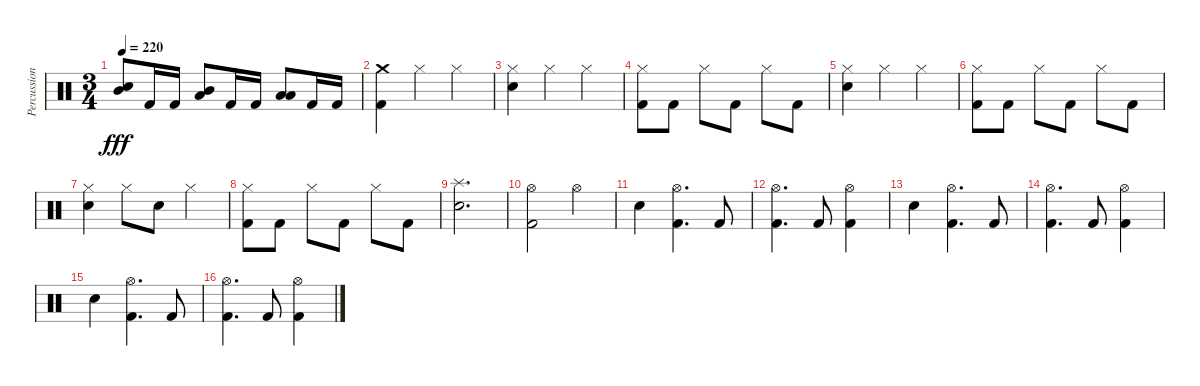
\track ("Percussions" "Percussion") {instrument percussion}
\staff {score}
\articulation defaults
\ts (3 4)
\tempo 220
\clef neutral
\ks c
("Mid Tom (hit)" "Electric Snare (hit)").8{dy fff} "Kick (hit) 2".16 "Kick (hit) 2".16 ("Low Tom (hit)" "Mid Tom (hit)").8 "Kick (hit) 2".16 "Kick (hit) 2".16 ("Low Floor Tom (hit)" "Low Tom (hit)").8 "Kick (hit) 2".16 "Kick (hit) 2".16 |
("Crash medium (hit)" "Kick (hit) 2").4 "Hi-Hat (closed)".4 "Hi-Hat (closed)".4 |
("Hi-Hat (closed)" "Electric Snare (hit)").4 "Hi-Hat (closed)".4 "Hi-Hat (closed)".4 |
("Hi-Hat (closed)" "Kick (hit) 2").8 "Kick (hit) 2".8 "Hi-Hat (closed)".8 "Kick (hit) 2".8 "Hi-Hat (closed)".8 "Kick (hit) 2".8 |
("Hi-Hat (closed)" "Electric Snare (hit)").4 "Hi-Hat (closed)".4 "Hi-Hat (closed)".4 |
("Hi-Hat (closed)" "Kick (hit) 2").8 "Kick (hit) 2".8 "Hi-Hat (closed)".8 "Kick (hit) 2".8 "Hi-Hat (closed)".8 "Kick (hit) 2".8 |
("Hi-Hat (closed)" "Electric Snare (hit)").4 "Hi-Hat (closed)".8 "Electric Snare (hit)".8 "Hi-Hat (closed)".4 |
("Hi-Hat (closed)" "Kick (hit) 2").8 "Kick (hit) 2".8 "Hi-Hat (closed)".8 "Kick (hit) 2".8 "Hi-Hat (closed)".8 "Kick (hit) 2".8 |
("Splash (hit)" "Electric Snare (hit)").2{d} |
("Hi-Hat (open)" "Kick (hit) 2").2 "Hi-Hat (open)".4 |
"Electric Snare (hit)".4 ("Hi-Hat (open)" "Kick (hit) 2").4{d} "Kick (hit) 2".8 |
("Hi-Hat (open)" "Kick (hit) 2").4{d} "Kick (hit) 2".8 ("Hi-Hat (open)" "Kick (hit) 2").4 |
"Electric Snare (hit)".4 ("Hi-Hat (open)" "Kick (hit) 2").4{d} "Kick (hit) 2".8 |
("Hi-Hat (open)" "Kick (hit) 2").4{d} "Kick (hit) 2".8 ("Hi-Hat (open)" "Kick (hit) 2").4 |
"Electric Snare (hit)".4 ("Hi-Hat (open)" "Kick (hit) 2").4{d} "Kick (hit) 2".8 |
("Hi-Hat (open)" "Kick (hit) 2").4{d} "Kick (hit) 2".8 ("Hi-Hat (open)" "Kick (hit) 2").4
